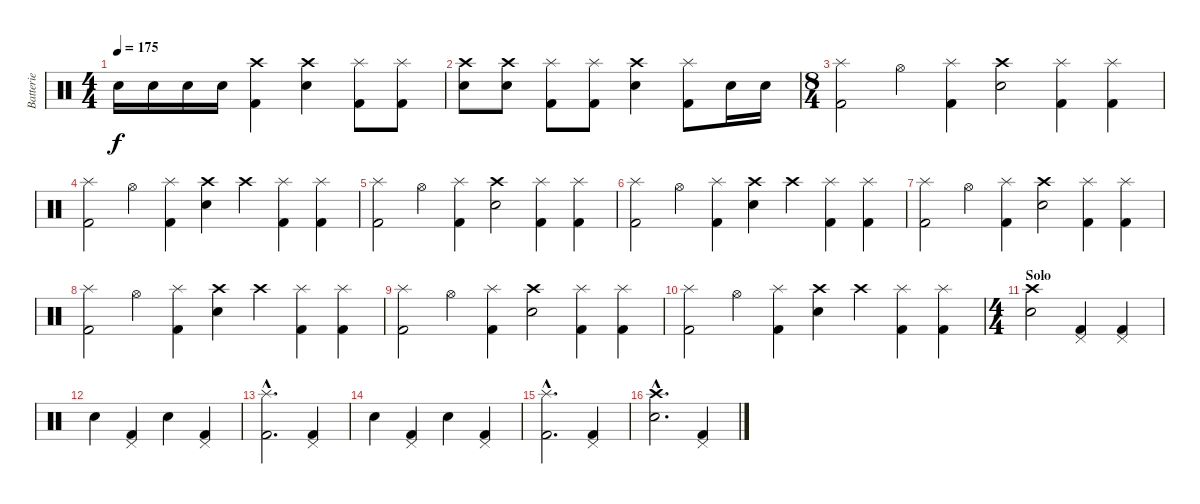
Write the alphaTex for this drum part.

\track ("Batterie" "Batterie") {instrument percussion}
\staff {score}
\articulation defaults
\ts (4 4)
\tempo 175
\clef neutral
\ks c "Snare (hit) 2".16{dy f} "Snare (hit) 2".16 "Snare (hit) 2".16 "Snare (hit) 2".16
("Crash high (hit)" "Kick (hit) 2").4 ("Crash high (hit)" "Snare (hit) 2").4 ("Splash (hit)" "Kick (hit) 2").8 ("Splash (hit)" "Kick (hit) 2").8 |
("Crash high (hit)" "Snare (hit) 2").8 ("Crash high (hit)" "Snare (hit) 2").8 ("Splash (hit)" "Kick (hit) 2").8 ("Splash (hit)" "Kick (hit) 2").8 ("Crash high (hit)" "Snare (hit) 2").4 ("Splash (hit)" "Kick (hit) 2").8 "Snare (hit) 2".16 "Snare (hit) 2".16 |
\ts (8 4)
("Splash (hit)" "Kick (hit) 2").2 "Hi-Hat (open)".4 ("Splash (hit)" "Kick (hit) 2").4 ("Crash high (hit)" "Snare (hit) 2").2 ("Splash (hit)" "Kick (hit) 2").4 ("Splash (hit)" "Kick (hit) 2").4 |
("Splash (hit)" "Kick (hit) 2").2 "Hi-Hat (open)".4 ("Splash (hit)" "Kick (hit) 2").4 ("Crash high (hit)" "Snare (hit) 2").4 "Crash high (hit)".4 ("Splash (hit)" "Kick (hit) 2").4 ("Splash (hit)" "Kick (hit) 2").4 |
("Splash (hit)" "Kick (hit) 2").2 "Hi-Hat (open)".4 ("Splash (hit)" "Kick (hit) 2").4 ("Crash high (hit)" "Snare (hit) 2").2 ("Splash (hit)" "Kick (hit) 2").4 ("Splash (hit)" "Kick (hit) 2").4 |
("Splash (hit)" "Kick (hit) 2").2 "Hi-Hat (open)".4 ("Splash (hit)" "Kick (hit) 2").4 ("Crash high (hit)" "Snare (hit) 2").4 "Crash high (hit)".4 ("Splash (hit)" "Kick (hit) 2").4 ("Splash (hit)" "Kick (hit) 2").4 |
("Splash (hit)" "Kick (hit) 2").2 "Hi-Hat (open)".4 ("Splash (hit)" "Kick (hit) 2").4 ("Crash high (hit)" "Snare (hit) 2").2 ("Splash (hit)" "Kick (hit) 2").4 ("Splash (hit)" "Kick (hit) 2").4 |
("Splash (hit)" "Kick (hit) 2").2 "Hi-Hat (open)".4 ("Splash (hit)" "Kick (hit) 2").4 ("Crash high (hit)" "Snare (hit) 2").4 "Crash high (hit)".4 ("Splash (hit)" "Kick (hit) 2").4 ("Splash (hit)" "Kick (hit) 2").4 |
("Splash (hit)" "Kick (hit) 2").2 "Hi-Hat (open)".4 ("Splash (hit)" "Kick (hit) 2").4 ("Crash high (hit)" "Snare (hit) 2").2 ("Splash (hit)" "Kick (hit) 2").4 ("Splash (hit)" "Kick (hit) 2").4 |
("Splash (hit)" "Kick (hit) 2").2 "Hi-Hat (open)".4 ("Splash (hit)" "Kick (hit) 2").4 ("Crash high (hit)" "Snare (hit) 2").4 "Crash high (hit)".4 ("Splash (hit)" "Kick (hit) 2").4 ("Splash (hit)" "Kick (hit) 2").4 |
\ts (4 4)
\section ("" "Solo")
("Crash high (hit)" "Snare (hit) 2").2 ("Pedal Hi-Hat (hit)" "Kick (hit) 2").4 ("Pedal Hi-Hat (hit)" "Kick (hit) 2").4 |
"Snare (hit) 2".4 ("Pedal Hi-Hat (hit)" "Kick (hit) 2").4 "Snare (hit) 2".4 ("Pedal Hi-Hat (hit)" "Kick (hit) 2").4 |
("Splash (hit)"{hac} "Kick (hit) 2"{hac}).2{d} ("Pedal Hi-Hat (hit)" "Kick (hit) 2").4 |
"Snare (hit) 2".4 ("Pedal Hi-Hat (hit)" "Kick (hit) 2").4 "Snare (hit) 2".4 ("Pedal Hi-Hat (hit)" "Kick (hit) 2").4 |
("Splash (hit)"{hac} "Kick (hit) 2"{hac}).2{d} ("Pedal Hi-Hat (hit)" "Kick (hit) 2").4 |
("Crash high (hit)"{hac} "Snare (hit) 2"{hac}).2{d} ("Pedal Hi-Hat (hit)" "Kick (hit) 2").4
